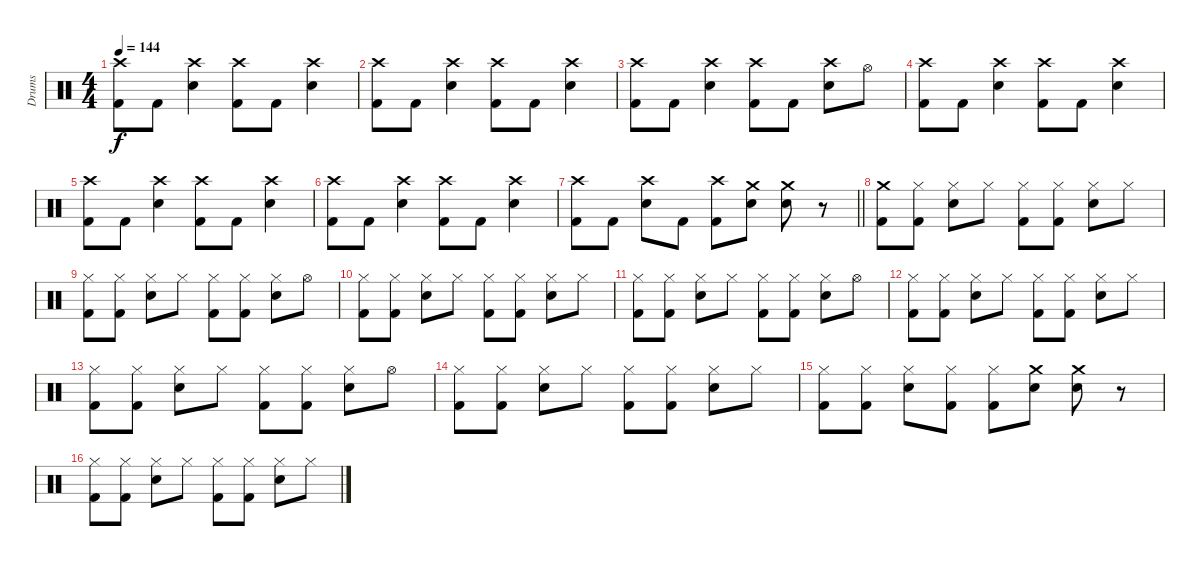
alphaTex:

\track ("Drums" "Drums") {instrument percussion}
\staff {score}
\articulation defaults
\ts (4 4)
\tempo 144
\clef neutral
\ks c
("Crash high (hit)" "Kick (hit) 2").8{dy f} "Kick (hit) 2".8 ("Crash high (hit)" "Electric Snare (hit)").4 ("Crash high (hit)" "Kick (hit) 2").8 "Kick (hit) 2".8 ("Crash high (hit)" "Electric Snare (hit)").4 |
("Crash high (hit)" "Kick (hit) 2").8 "Kick (hit) 2".8 ("Crash high (hit)" "Electric Snare (hit)").4 ("Crash high (hit)" "Kick (hit) 2").8 "Kick (hit) 2".8 ("Crash high (hit)" "Electric Snare (hit)").4 |
("Crash high (hit)" "Kick (hit) 2").8 "Kick (hit) 2".8 ("Crash high (hit)" "Electric Snare (hit)").4 ("Crash high (hit)" "Kick (hit) 2").8 "Kick (hit) 2".8 ("Crash high (hit)" "Electric Snare (hit)").8 "Hi-Hat (open)".8 |
("Crash high (hit)" "Kick (hit) 2").8 "Kick (hit) 2".8 ("Crash high (hit)" "Electric Snare (hit)").4 ("Crash high (hit)" "Kick (hit) 2").8 "Kick (hit) 2".8 ("Crash high (hit)" "Electric Snare (hit)").4 |
("Crash high (hit)" "Kick (hit) 2").8 "Kick (hit) 2".8 ("Crash high (hit)" "Electric Snare (hit)").4 ("Crash high (hit)" "Kick (hit) 2").8 "Kick (hit) 2".8 ("Crash high (hit)" "Electric Snare (hit)").4 |
("Crash high (hit)" "Kick (hit) 2").8 "Kick (hit) 2".8 ("Crash high (hit)" "Electric Snare (hit)").4 ("Crash high (hit)" "Kick (hit) 2").8 "Kick (hit) 2".8 ("Crash high (hit)" "Electric Snare (hit)").4 |
\barLineRight lightlight
("Crash high (hit)" "Kick (hit) 2").8 "Kick (hit) 2".8 ("Crash high (hit)" "Electric Snare (hit)").8 "Kick (hit) 2".8 ("Crash high (hit)" "Kick (hit) 2").8 ("Crash medium (hit)" "Electric Snare (hit)").8 ("Crash medium (hit)" "Electric Snare (hit)").8 r.8 |
("Crash medium (hit)" "Kick (hit) 2").8 ("Hi-Hat (closed)" "Kick (hit) 2").8 ("Hi-Hat (closed)" "Electric Snare (hit)").8 "Hi-Hat (closed)".8 ("Hi-Hat (closed)" "Kick (hit) 2").8 ("Hi-Hat (closed)" "Kick (hit) 2").8 ("Hi-Hat (closed)" "Electric Snare (hit)").8 "Hi-Hat (closed)".8 |
("Hi-Hat (closed)" "Kick (hit) 2").8 ("Hi-Hat (closed)" "Kick (hit) 2").8 ("Hi-Hat (closed)" "Electric Snare (hit)").8 "Hi-Hat (closed)".8 ("Hi-Hat (closed)" "Kick (hit) 2").8 ("Hi-Hat (closed)" "Kick (hit) 2").8 ("Hi-Hat (closed)" "Electric Snare (hit)").8 "Hi-Hat (open)".8 |
("Hi-Hat (closed)" "Kick (hit) 2").8 ("Hi-Hat (closed)" "Kick (hit) 2").8 ("Hi-Hat (closed)" "Electric Snare (hit)").8 "Hi-Hat (closed)".8 ("Hi-Hat (closed)" "Kick (hit) 2").8 ("Hi-Hat (closed)" "Kick (hit) 2").8 ("Hi-Hat (closed)" "Electric Snare (hit)").8 "Hi-Hat (closed)".8 |
("Hi-Hat (closed)" "Kick (hit) 2").8 ("Hi-Hat (closed)" "Kick (hit) 2").8 ("Hi-Hat (closed)" "Electric Snare (hit)").8 "Hi-Hat (closed)".8 ("Hi-Hat (closed)" "Kick (hit) 2").8 ("Hi-Hat (closed)" "Kick (hit) 2").8 ("Hi-Hat (closed)" "Electric Snare (hit)").8 "Hi-Hat (open)".8 |
("Hi-Hat (closed)" "Kick (hit) 2").8 ("Hi-Hat (closed)" "Kick (hit) 2").8 ("Hi-Hat (closed)" "Electric Snare (hit)").8 "Hi-Hat (closed)".8 ("Hi-Hat (closed)" "Kick (hit) 2").8 ("Hi-Hat (closed)" "Kick (hit) 2").8 ("Hi-Hat (closed)" "Electric Snare (hit)").8 "Hi-Hat (closed)".8 |
("Hi-Hat (closed)" "Kick (hit) 2").8 ("Hi-Hat (closed)" "Kick (hit) 2").8 ("Hi-Hat (closed)" "Electric Snare (hit)").8 "Hi-Hat (closed)".8 ("Hi-Hat (closed)" "Kick (hit) 2").8 ("Hi-Hat (closed)" "Kick (hit) 2").8 ("Hi-Hat (closed)" "Electric Snare (hit)").8 "Hi-Hat (open)".8 |
("Hi-Hat (closed)" "Kick (hit) 2").8 ("Hi-Hat (closed)" "Kick (hit) 2").8 ("Hi-Hat (closed)" "Electric Snare (hit)").8 "Hi-Hat (closed)".8 ("Hi-Hat (closed)" "Kick (hit) 2").8 ("Hi-Hat (closed)" "Kick (hit) 2").8 ("Hi-Hat (closed)" "Electric Snare (hit)").8 "Hi-Hat (closed)".8 |
("Hi-Hat (closed)" "Kick (hit) 2").8 ("Hi-Hat (closed)" "Kick (hit) 2").8 ("Hi-Hat (closed)" "Electric Snare (hit)").8 ("Hi-Hat (closed)" "Kick (hit) 2").8 ("Hi-Hat (closed)" "Kick (hit) 2").8 ("Crash medium (hit)" "Electric Snare (hit)").8 ("Crash medium (hit)" "Electric Snare (hit)").8 r.8 |
("Hi-Hat (closed)" "Kick (hit) 2").8 ("Hi-Hat (closed)" "Kick (hit) 2").8 ("Hi-Hat (closed)" "Electric Snare (hit)").8 "Hi-Hat (closed)".8 ("Hi-Hat (closed)" "Kick (hit) 2").8 ("Hi-Hat (closed)" "Kick (hit) 2").8 ("Hi-Hat (closed)" "Electric Snare (hit)").8 "Hi-Hat (closed)".8
